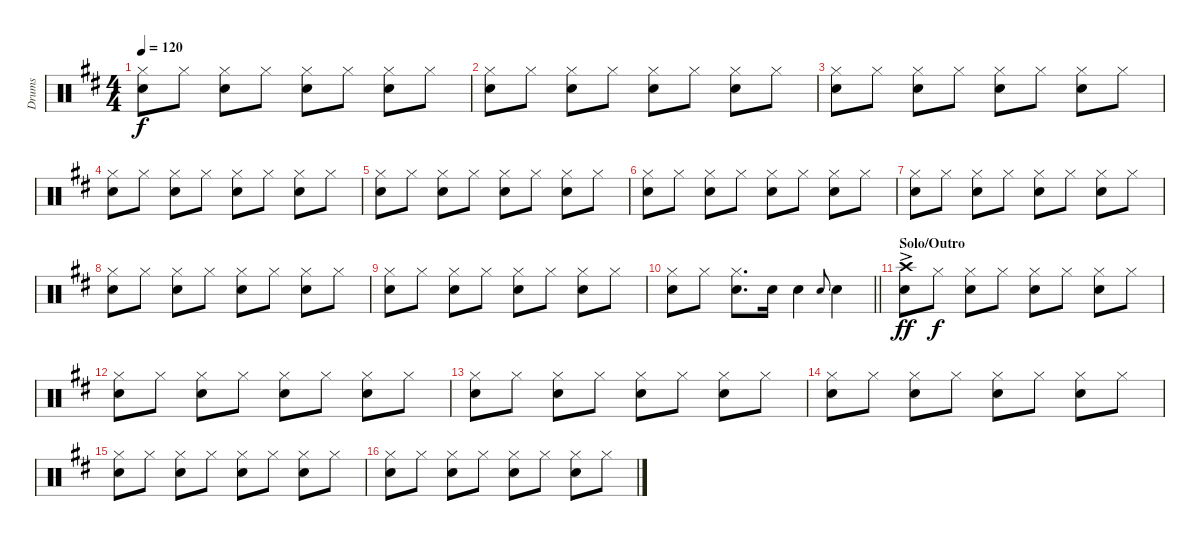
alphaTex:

\track ("Drums" "Drums") {instrument percussion}
\staff {score}
\articulation defaults
\ts (4 4)
\tempo 120
\clef neutral
\ks d
("Hi-Hat (closed)" "Snare (hit) 2").8{dy f} "Hi-Hat (closed)".8 ("Hi-Hat (closed)" "Snare (hit) 2").8 "Hi-Hat (closed)".8 ("Hi-Hat (closed)" "Snare (hit) 2").8 "Hi-Hat (closed)".8 ("Hi-Hat (closed)" "Snare (hit) 2").8 "Hi-Hat (closed)".8 |
("Hi-Hat (closed)" "Snare (hit) 2").8 "Hi-Hat (closed)".8 ("Hi-Hat (closed)" "Snare (hit) 2").8 "Hi-Hat (closed)".8 ("Hi-Hat (closed)" "Snare (hit) 2").8 "Hi-Hat (closed)".8 ("Hi-Hat (closed)" "Snare (hit) 2").8 "Hi-Hat (closed)".8 |
("Hi-Hat (closed)" "Snare (hit) 2").8 "Hi-Hat (closed)".8 ("Hi-Hat (closed)" "Snare (hit) 2").8 "Hi-Hat (closed)".8 ("Hi-Hat (closed)" "Snare (hit) 2").8 "Hi-Hat (closed)".8 ("Hi-Hat (closed)" "Snare (hit) 2").8 "Hi-Hat (closed)".8 |
("Hi-Hat (closed)" "Snare (hit) 2").8 "Hi-Hat (closed)".8 ("Hi-Hat (closed)" "Snare (hit) 2").8 "Hi-Hat (closed)".8 ("Hi-Hat (closed)" "Snare (hit) 2").8 "Hi-Hat (closed)".8 ("Hi-Hat (closed)" "Snare (hit) 2").8 "Hi-Hat (closed)".8 |
("Hi-Hat (closed)" "Snare (hit) 2").8 "Hi-Hat (closed)".8 ("Hi-Hat (closed)" "Snare (hit) 2").8 "Hi-Hat (closed)".8 ("Hi-Hat (closed)" "Snare (hit) 2").8 "Hi-Hat (closed)".8 ("Hi-Hat (closed)" "Snare (hit) 2").8 "Hi-Hat (closed)".8 |
("Hi-Hat (closed)" "Snare (hit) 2").8 "Hi-Hat (closed)".8 ("Hi-Hat (closed)" "Snare (hit) 2").8 "Hi-Hat (closed)".8 ("Hi-Hat (closed)" "Snare (hit) 2").8 "Hi-Hat (closed)".8 ("Hi-Hat (closed)" "Snare (hit) 2").8 "Hi-Hat (closed)".8 |
("Hi-Hat (closed)" "Snare (hit) 2").8 "Hi-Hat (closed)".8 ("Hi-Hat (closed)" "Snare (hit) 2").8 "Hi-Hat (closed)".8 ("Hi-Hat (closed)" "Snare (hit) 2").8 "Hi-Hat (closed)".8 ("Hi-Hat (closed)" "Snare (hit) 2").8 "Hi-Hat (closed)".8 |
("Hi-Hat (closed)" "Snare (hit) 2").8 "Hi-Hat (closed)".8 ("Hi-Hat (closed)" "Snare (hit) 2").8 "Hi-Hat (closed)".8 ("Hi-Hat (closed)" "Snare (hit) 2").8 "Hi-Hat (closed)".8 ("Hi-Hat (closed)" "Snare (hit) 2").8 "Hi-Hat (closed)".8 |
("Hi-Hat (closed)" "Snare (hit) 2").8 "Hi-Hat (closed)".8 ("Hi-Hat (closed)" "Snare (hit) 2").8 "Hi-Hat (closed)".8 ("Hi-Hat (closed)" "Snare (hit) 2").8 "Hi-Hat (closed)".8 ("Hi-Hat (closed)" "Snare (hit) 2").8 "Hi-Hat (closed)".8 |
\barLineRight lightlight
("Hi-Hat (closed)" "Snare (hit) 2").8 "Hi-Hat (closed)".8 ("Hi-Hat (closed)" "Snare (hit) 2").8{d} "Snare (hit) 2".16 "Snare (hit) 2".4 "Snare (hit) 2".8{gr onbeat} "Snare (hit) 2".4 |
\section ("" "Solo/Outro")
("Crash high (hit)"{ac} "Snare (hit) 2").8{dy ff} "Hi-Hat (closed)".8{dy f} ("Hi-Hat (closed)" "Snare (hit) 2").8 "Hi-Hat (closed)".8 ("Hi-Hat (closed)" "Snare (hit) 2").8 "Hi-Hat (closed)".8 ("Hi-Hat (closed)" "Snare (hit) 2").8 "Hi-Hat (closed)".8 |
("Hi-Hat (closed)" "Snare (hit) 2").8 "Hi-Hat (closed)".8 ("Hi-Hat (closed)" "Snare (hit) 2").8 "Hi-Hat (closed)".8 ("Hi-Hat (closed)" "Snare (hit) 2").8 "Hi-Hat (closed)".8 ("Hi-Hat (closed)" "Snare (hit) 2").8 "Hi-Hat (closed)".8 |
("Hi-Hat (closed)" "Snare (hit) 2").8 "Hi-Hat (closed)".8 ("Hi-Hat (closed)" "Snare (hit) 2").8 "Hi-Hat (closed)".8 ("Hi-Hat (closed)" "Snare (hit) 2").8 "Hi-Hat (closed)".8 ("Hi-Hat (closed)" "Snare (hit) 2").8 "Hi-Hat (closed)".8 |
("Hi-Hat (closed)" "Snare (hit) 2").8 "Hi-Hat (closed)".8 ("Hi-Hat (closed)" "Snare (hit) 2").8 "Hi-Hat (closed)".8 ("Hi-Hat (closed)" "Snare (hit) 2").8 "Hi-Hat (closed)".8 ("Hi-Hat (closed)" "Snare (hit) 2").8 "Hi-Hat (closed)".8 |
("Hi-Hat (closed)" "Snare (hit) 2").8 "Hi-Hat (closed)".8 ("Hi-Hat (closed)" "Snare (hit) 2").8 "Hi-Hat (closed)".8 ("Hi-Hat (closed)" "Snare (hit) 2").8 "Hi-Hat (closed)".8 ("Hi-Hat (closed)" "Snare (hit) 2").8 "Hi-Hat (closed)".8 |
("Hi-Hat (closed)" "Snare (hit) 2").8 "Hi-Hat (closed)".8 ("Hi-Hat (closed)" "Snare (hit) 2").8 "Hi-Hat (closed)".8 ("Hi-Hat (closed)" "Snare (hit) 2").8 "Hi-Hat (closed)".8 ("Hi-Hat (closed)" "Snare (hit) 2").8 "Hi-Hat (closed)".8
